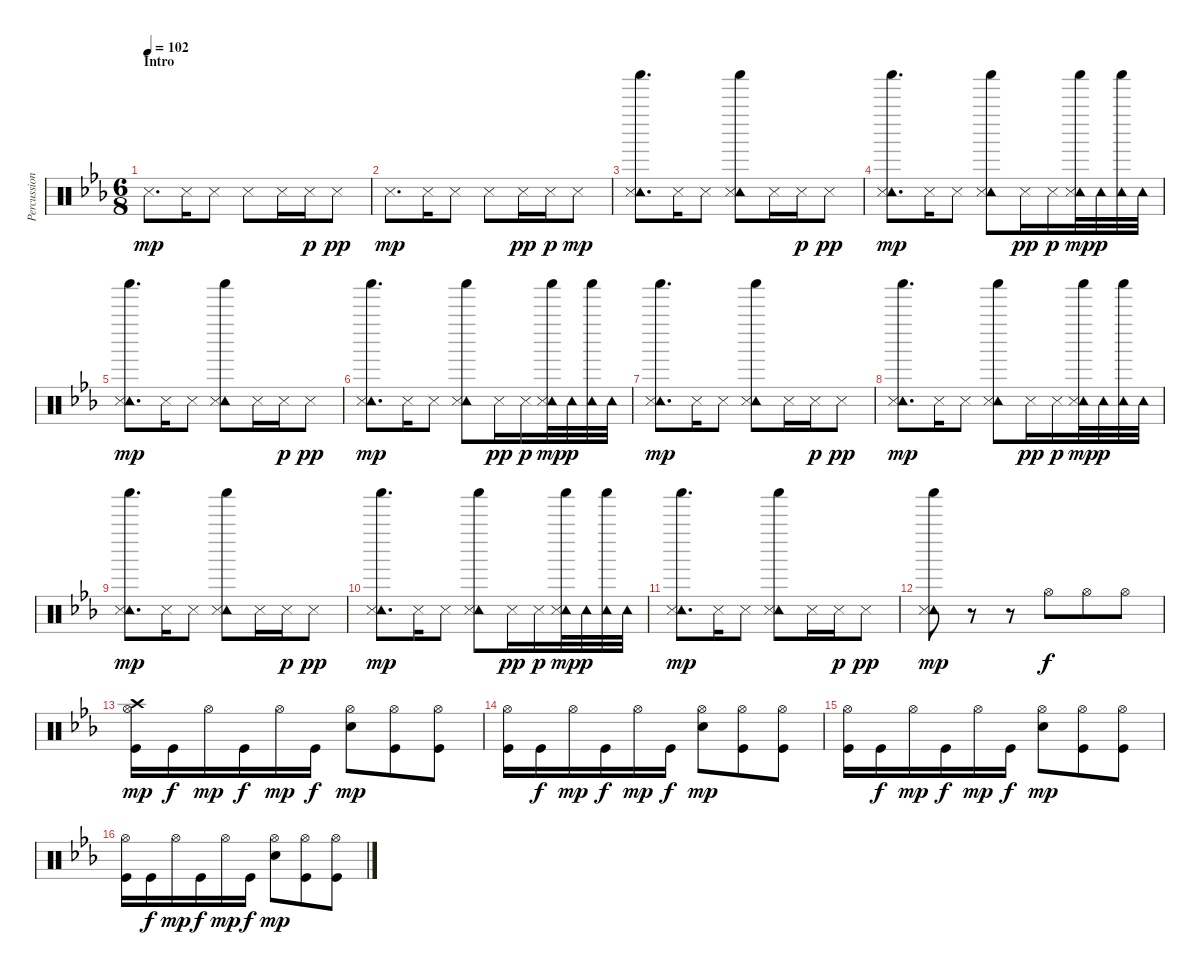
\track ("Percussion" "Percussion") {instrument percussion}
\staff {score}
\articulation defaults
\ts (6 8)
\section ("" "Intro")
\tempo 102
\clef neutral
\ks cminor "Metronome (hit)".8{d dy mp} "Metronome (hit)".16 "Metronome (hit)".8 "Metronome (hit)".8 "Metronome (hit)".16 "Metronome (hit)".16{dy p} "Metronome (hit)".8{dy pp}
|
"Metronome (hit)".8{d dy mp} "Metronome (hit)".16 "Metronome (hit)".8 "Metronome (hit)".8 "Metronome (hit)".16{dy pp} "Metronome (hit)".16{dy p} "Metronome (hit)".8{dy mp} |
("Shaker (hit)" "Tambourine (hit)" "Metronome (hit)").8{d} "Metronome (hit)".16 "Metronome (hit)".8 ("Shaker (hit)" "Tambourine (hit)" "Metronome (hit)").8 "Metronome (hit)".16 "Metronome (hit)".16{dy p} "Metronome (hit)".8{dy pp} |
("Shaker (hit)" "Tambourine (hit)" "Metronome (hit)").8{d dy mp} "Metronome (hit)".16 "Metronome (hit)".8 ("Shaker (hit)" "Tambourine (hit)" "Metronome (hit)").8 "Metronome (hit)".16{dy pp} "Metronome (hit)".16{dy p} ("Shaker (hit)" "Tambourine (hit)" "Metronome (hit)").32{dy mp} "Tambourine (hit)".32{dy p} ("Shaker (hit)" "Tambourine (hit)").32 "Tambourine (hit)".32 |
("Shaker (hit)" "Tambourine (hit)" "Metronome (hit)").8{d dy mp} "Metronome (hit)".16 "Metronome (hit)".8 ("Shaker (hit)" "Tambourine (hit)" "Metronome (hit)").8 "Metronome (hit)".16 "Metronome (hit)".16{dy p} "Metronome (hit)".8{dy pp} |
("Shaker (hit)" "Tambourine (hit)" "Metronome (hit)").8{d dy mp} "Metronome (hit)".16 "Metronome (hit)".8 ("Shaker (hit)" "Tambourine (hit)" "Metronome (hit)").8 "Metronome (hit)".16{dy pp} "Metronome (hit)".16{dy p} ("Shaker (hit)" "Tambourine (hit)" "Metronome (hit)").32{dy mp} "Tambourine (hit)".32{dy p} ("Shaker (hit)" "Tambourine (hit)").32 "Tambourine (hit)".32 |
("Shaker (hit)" "Tambourine (hit)" "Metronome (hit)").8{d dy mp} "Metronome (hit)".16 "Metronome (hit)".8 ("Shaker (hit)" "Tambourine (hit)" "Metronome (hit)").8 "Metronome (hit)".16 "Metronome (hit)".16{dy p} "Metronome (hit)".8{dy pp} |
("Shaker (hit)" "Tambourine (hit)" "Metronome (hit)").8{d dy mp} "Metronome (hit)".16 "Metronome (hit)".8 ("Shaker (hit)" "Tambourine (hit)" "Metronome (hit)").8 "Metronome (hit)".16{dy pp} "Metronome (hit)".16{dy p} ("Shaker (hit)" "Tambourine (hit)" "Metronome (hit)").32{dy mp} "Tambourine (hit)".32{dy p} ("Shaker (hit)" "Tambourine (hit)").32 "Tambourine (hit)".32 |
("Shaker (hit)" "Tambourine (hit)" "Metronome (hit)").8{d dy mp} "Metronome (hit)".16 "Metronome (hit)".8 ("Shaker (hit)" "Tambourine (hit)" "Metronome (hit)").8 "Metronome (hit)".16 "Metronome (hit)".16{dy p} "Metronome (hit)".8{dy pp} |
("Shaker (hit)" "Tambourine (hit)" "Metronome (hit)").8{d dy mp} "Metronome (hit)".16 "Metronome (hit)".8 ("Shaker (hit)" "Tambourine (hit)" "Metronome (hit)").8 "Metronome (hit)".16{dy pp} "Metronome (hit)".16{dy p} ("Shaker (hit)" "Tambourine (hit)" "Metronome (hit)").32{dy mp} "Tambourine (hit)".32{dy p} ("Shaker (hit)" "Tambourine (hit)").32 "Tambourine (hit)".32 |
("Shaker (hit)" "Tambourine (hit)" "Metronome (hit)").8{d dy mp} "Metronome (hit)".16 "Metronome (hit)".8 ("Shaker (hit)" "Tambourine (hit)" "Metronome (hit)").8 "Metronome (hit)".16 "Metronome (hit)".16{dy p} "Metronome (hit)".8{dy pp} |
("Shaker (hit)" "Tambourine (hit)" "Metronome (hit)").8{dy mp} r.8 r.8 "Hi-Hat (open)".8{dy f} "Hi-Hat (open)".8 "Hi-Hat (open)".8 |
("Crash high (hit)" "Hi-Hat (open)" "Kick (hit)").16{dy mp} "Kick (hit)".16{dy f} "Hi-Hat (open)".16{dy mp} "Kick (hit)".16{dy f} "Hi-Hat (open)".16{dy mp} "Kick (hit)".16{dy f} ("Hi-Hat (open)" "Snare (hit) 2").8{dy mp} ("Hi-Hat (open)" "Kick (hit)").8 ("Hi-Hat (open)" "Kick (hit)").8 |
("Hi-Hat (open)" "Kick (hit)").16 "Kick (hit)".16{dy f} "Hi-Hat (open)".16{dy mp} "Kick (hit)".16{dy f} "Hi-Hat (open)".16{dy mp} "Kick (hit)".16{dy f} ("Hi-Hat (open)" "Snare (hit) 2").8{dy mp} ("Hi-Hat (open)" "Kick (hit)").8 ("Hi-Hat (open)" "Kick (hit)").8 |
("Hi-Hat (open)" "Kick (hit)").16 "Kick (hit)".16{dy f} "Hi-Hat (open)".16{dy mp} "Kick (hit)".16{dy f} "Hi-Hat (open)".16{dy mp} "Kick (hit)".16{dy f} ("Hi-Hat (open)" "Snare (hit) 2").8{dy mp} ("Hi-Hat (open)" "Kick (hit)").8 ("Hi-Hat (open)" "Kick (hit)").8 |
("Hi-Hat (open)" "Kick (hit)").16 "Kick (hit)".16{dy f} "Hi-Hat (open)".16{dy mp} "Kick (hit)".16{dy f} "Hi-Hat (open)".16{dy mp} "Kick (hit)".16{dy f} ("Hi-Hat (open)" "Snare (hit) 2").8{dy mp} ("Hi-Hat (open)" "Kick (hit)").8 ("Hi-Hat (open)" "Kick (hit)").8
